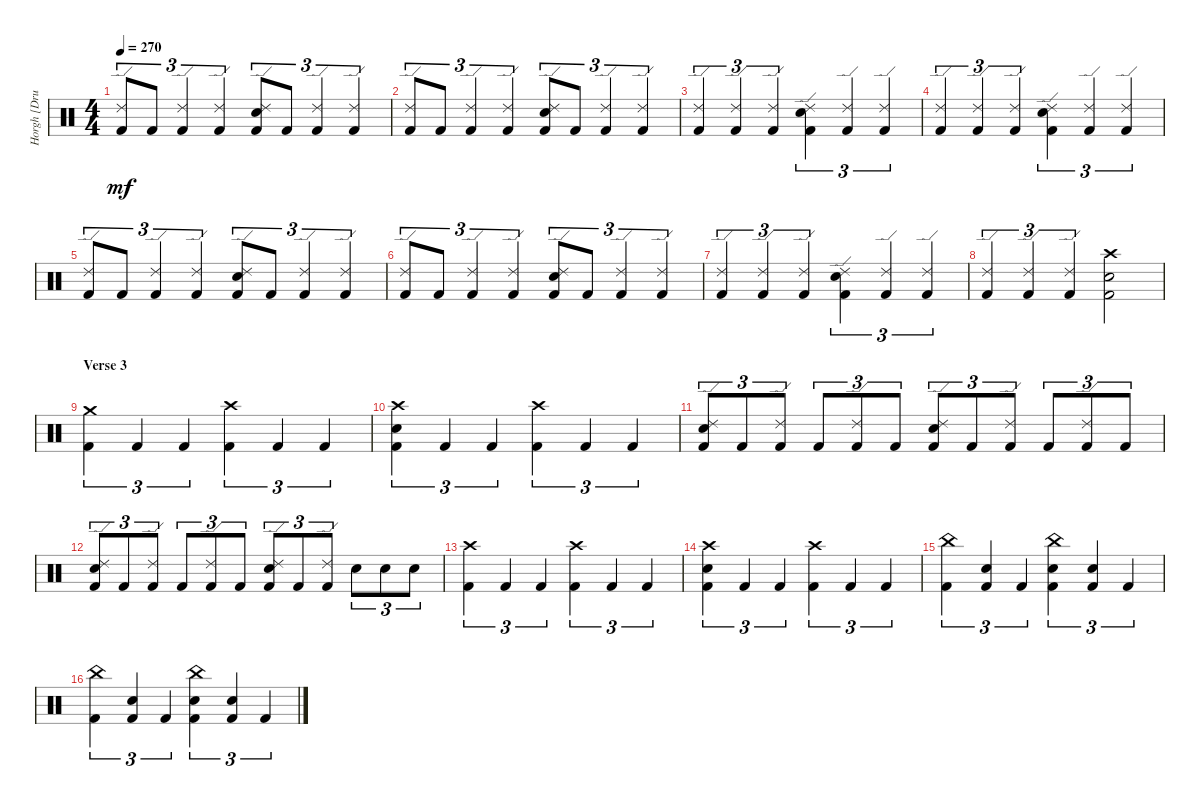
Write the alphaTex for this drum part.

\track ("Horgh [Drums]" "Horgh [Dru") {instrument percussion}
\staff {score}
\articulation defaults
\ts (4 4)
\tempo 270
\clef neutral
\ks c
("Ride (edge) 2" "Kick (hit) 2").8{tu (3 2) dy mf} "Kick (hit) 2".8{tu (3 2)} ("Ride (edge) 2" "Kick (hit) 2").4{tu (3 2)} ("Ride (edge) 2" "Kick (hit) 2").4{tu (3 2)} ("Ride (edge) 2" "Electric Snare (hit)" "Kick (hit) 2").8{tu (3 2)} "Kick (hit) 2".8{tu (3 2)} ("Ride (edge) 2" "Kick (hit) 2").4{tu (3 2)} ("Ride (edge) 2" "Kick (hit) 2").4{tu (3 2)} |
("Ride (edge) 2" "Kick (hit) 2").8{tu (3 2)} "Kick (hit) 2".8{tu (3 2)} ("Ride (edge) 2" "Kick (hit) 2").4{tu (3 2)} ("Ride (edge) 2" "Kick (hit) 2").4{tu (3 2)} ("Ride (edge) 2" "Electric Snare (hit)" "Kick (hit) 2").8{tu (3 2)} "Kick (hit) 2".8{tu (3 2)} ("Ride (edge) 2" "Kick (hit) 2").4{tu (3 2)} ("Ride (edge) 2" "Kick (hit) 2").4{tu (3 2)} |
("Ride (edge) 2" "Kick (hit) 2").4{tu (3 2)} ("Ride (edge) 2" "Kick (hit) 2").4{tu (3 2)} ("Ride (edge) 2" "Kick (hit) 2").4{tu (3 2)} ("Ride (edge) 2" "Electric Snare (hit)" "Kick (hit) 2").4{tu (3 2)} ("Ride (edge) 2" "Kick (hit) 2").4{tu (3 2)} ("Ride (edge) 2" "Kick (hit) 2").4{tu (3 2)} |
("Ride (edge) 2" "Kick (hit) 2").4{tu (3 2)} ("Ride (edge) 2" "Kick (hit) 2").4{tu (3 2)} ("Ride (edge) 2" "Kick (hit) 2").4{tu (3 2)} ("Ride (edge) 2" "Electric Snare (hit)" "Kick (hit) 2").4{tu (3 2)} ("Ride (edge) 2" "Kick (hit) 2").4{tu (3 2)} ("Ride (edge) 2" "Kick (hit) 2").4{tu (3 2)} |
("Ride (edge) 2" "Kick (hit) 2").8{tu (3 2)} "Kick (hit) 2".8{tu (3 2)} ("Ride (edge) 2" "Kick (hit) 2").4{tu (3 2)} ("Ride (edge) 2" "Kick (hit) 2").4{tu (3 2)} ("Ride (edge) 2" "Electric Snare (hit)" "Kick (hit) 2").8{tu (3 2)} "Kick (hit) 2".8{tu (3 2)} ("Ride (edge) 2" "Kick (hit) 2").4{tu (3 2)} ("Ride (edge) 2" "Kick (hit) 2").4{tu (3 2)} |
("Ride (edge) 2" "Kick (hit) 2").8{tu (3 2)} "Kick (hit) 2".8{tu (3 2)} ("Ride (edge) 2" "Kick (hit) 2").4{tu (3 2)} ("Ride (edge) 2" "Kick (hit) 2").4{tu (3 2)} ("Ride (edge) 2" "Electric Snare (hit)" "Kick (hit) 2").8{tu (3 2)} "Kick (hit) 2".8{tu (3 2)} ("Ride (edge) 2" "Kick (hit) 2").4{tu (3 2)} ("Ride (edge) 2" "Kick (hit) 2").4{tu (3 2)} |
("Ride (edge) 2" "Kick (hit) 2").4{tu (3 2)} ("Ride (edge) 2" "Kick (hit) 2").4{tu (3 2)} ("Ride (edge) 2" "Kick (hit) 2").4{tu (3 2)} ("Ride (edge) 2" "Electric Snare (hit)" "Kick (hit) 2").4{tu (3 2)} ("Ride (edge) 2" "Kick (hit) 2").4{tu (3 2)} ("Ride (edge) 2" "Kick (hit) 2").4{tu (3 2)} |
("Ride (edge) 2" "Kick (hit) 2").4{tu (3 2)} ("Ride (edge) 2" "Kick (hit) 2").4{tu (3 2)} ("Ride (edge) 2" "Kick (hit) 2").4{tu (3 2)} ("Crash high (hit)" "Electric Snare (hit)" "Kick (hit) 2").2 |
\section ("" "Verse 3")
("Crash medium (hit)" "Kick (hit) 2").4{tu (3 2)} "Kick (hit) 2".4{tu (3 2)} "Kick (hit) 2".4{tu (3 2)} ("Crash high (hit)" "Kick (hit) 2").4{tu (3 2)} "Kick (hit) 2".4{tu (3 2)} "Kick (hit) 2".4{tu (3 2)} |
("Crash high (hit)" "Electric Snare (hit)" "Kick (hit) 2").4{tu (3 2)} "Kick (hit) 2".4{tu (3 2)} "Kick (hit) 2".4{tu (3 2)} ("Crash high (hit)" "Kick (hit) 2").4{tu (3 2)} "Kick (hit) 2".4{tu (3 2)} "Kick (hit) 2".4{tu (3 2)} |
("Ride (edge) 2" "Electric Snare (hit)" "Kick (hit) 2").8{tu (3 2)} "Kick (hit) 2".8{tu (3 2)} ("Ride (edge) 2" "Kick (hit) 2").8{tu (3 2)} "Kick (hit) 2".8{tu (3 2)} ("Ride (edge) 2" "Kick (hit) 2").8{tu (3 2)} "Kick (hit) 2".8{tu (3 2)} ("Ride (edge) 2" "Electric Snare (hit)" "Kick (hit) 2").8{tu (3 2)} "Kick (hit) 2".8{tu (3 2)} ("Ride (edge) 2" "Kick (hit) 2").8{tu (3 2)} "Kick (hit) 2".8{tu (3 2)} ("Ride (edge) 2" "Kick (hit) 2").8{tu (3 2)} "Kick (hit) 2".8{tu (3 2)} |
("Ride (edge) 2" "Electric Snare (hit)" "Kick (hit) 2").8{tu (3 2)} "Kick (hit) 2".8{tu (3 2)} ("Ride (edge) 2" "Kick (hit) 2").8{tu (3 2)} "Kick (hit) 2".8{tu (3 2)} ("Ride (edge) 2" "Kick (hit) 2").8{tu (3 2)} "Kick (hit) 2".8{tu (3 2)} ("Ride (edge) 2" "Electric Snare (hit)" "Kick (hit) 2").8{tu (3 2)} "Kick (hit) 2".8{tu (3 2)} ("Ride (edge) 2" "Kick (hit) 2").8{tu (3 2)} "Electric Snare (hit)".8{tu (3 2)} "Electric Snare (hit)".8{tu (3 2)} "Electric Snare (hit)".8{tu (3 2)} |
("Crash high (hit)" "Kick (hit) 2").4{tu (3 2)} "Kick (hit) 2".4{tu (3 2)} "Kick (hit) 2".4{tu (3 2)} ("Crash high (hit)" "Kick (hit) 2").4{tu (3 2)} "Kick (hit) 2".4{tu (3 2)} "Kick (hit) 2".4{tu (3 2)} |
("Crash high (hit)" "Electric Snare (hit)" "Kick (hit) 2").4{tu (3 2)} "Kick (hit) 2".4{tu (3 2)} "Kick (hit) 2".4{tu (3 2)} ("Crash high (hit)" "Kick (hit) 2").4{tu (3 2)} "Kick (hit) 2".4{tu (3 2)} "Kick (hit) 2".4{tu (3 2)} |
("China (hit)" "Kick (hit) 2").4{tu (3 2)} ("Electric Snare (hit)" "Kick (hit) 2").4{tu (3 2)} "Kick (hit) 2".4{tu (3 2)} ("China (hit)" "Electric Snare (hit)" "Kick (hit) 2").4{tu (3 2)} ("Electric Snare (hit)" "Kick (hit) 2").4{tu (3 2)} "Kick (hit) 2".4{tu (3 2)} |
("China (hit)" "Kick (hit) 2").4{tu (3 2)} ("Electric Snare (hit)" "Kick (hit) 2").4{tu (3 2)} "Kick (hit) 2".4{tu (3 2)} ("China (hit)" "Electric Snare (hit)" "Kick (hit) 2").4{tu (3 2)} ("Electric Snare (hit)" "Kick (hit) 2").4{tu (3 2)} "Kick (hit) 2".4{tu (3 2)}
